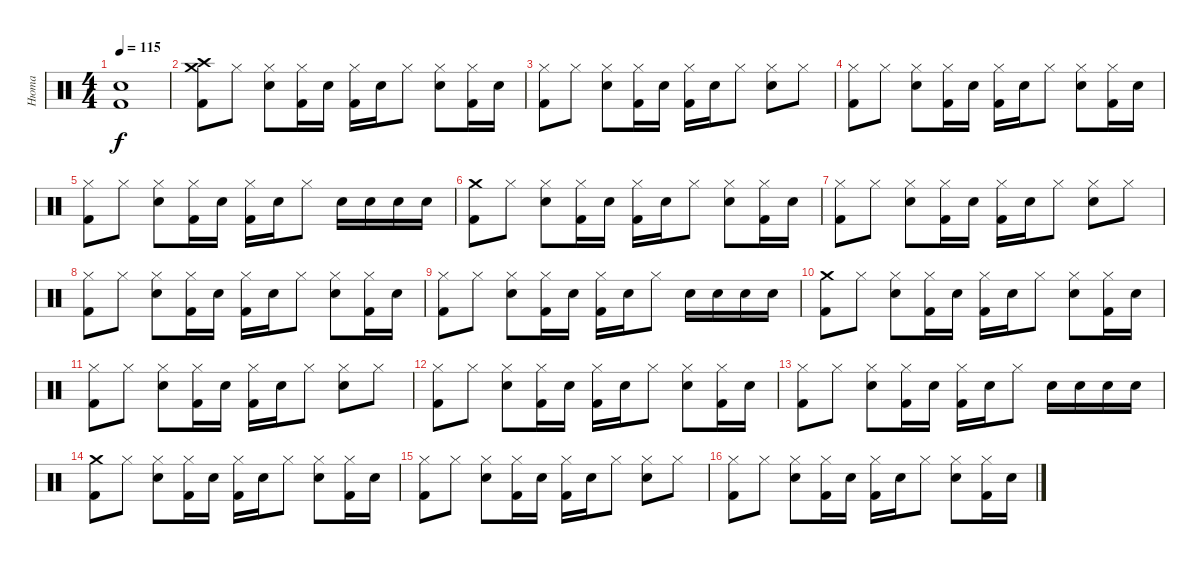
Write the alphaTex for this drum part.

\track ("Нюта" "Нюта") {instrument percussion}
\staff {score}
\articulation defaults
\ts (4 4)
\tempo 115
\clef neutral
\ks c
("Electric Snare (hit)" "Kick (hit) 2").1{dy f} |
("Crash medium (hit)" "Crash high (hit)" "Kick (hit) 2").8 "Hi-Hat (closed)".8 ("Hi-Hat (closed)" "Snare (hit) 2").8 ("Hi-Hat (closed)" "Kick (hit) 2").16 "Snare (hit) 2".16 ("Hi-Hat (closed)" "Kick (hit) 2").16 "Snare (hit) 2".16 "Hi-Hat (closed)".8 ("Hi-Hat (closed)" "Snare (hit) 2").8 ("Hi-Hat (closed)" "Kick (hit) 2").16 "Snare (hit) 2".16 |
("Hi-Hat (closed)" "Kick (hit) 2").8 "Hi-Hat (closed)".8 ("Hi-Hat (closed)" "Snare (hit) 2").8 ("Hi-Hat (closed)" "Kick (hit) 2").16 "Snare (hit) 2".16 ("Hi-Hat (closed)" "Kick (hit) 2").16 "Snare (hit) 2".16 "Hi-Hat (closed)".8 ("Hi-Hat (closed)" "Snare (hit) 2").8 "Hi-Hat (closed)".8 |
("Hi-Hat (closed)" "Kick (hit) 2").8 "Hi-Hat (closed)".8 ("Hi-Hat (closed)" "Snare (hit) 2").8 ("Hi-Hat (closed)" "Kick (hit) 2").16 "Snare (hit) 2".16 ("Hi-Hat (closed)" "Kick (hit) 2").16 "Snare (hit) 2".16 "Hi-Hat (closed)".8 ("Hi-Hat (closed)" "Snare (hit) 2").8 ("Hi-Hat (closed)" "Kick (hit) 2").16 "Snare (hit) 2".16 |
("Hi-Hat (closed)" "Kick (hit) 2").8 "Hi-Hat (closed)".8 ("Hi-Hat (closed)" "Snare (hit) 2").8 ("Hi-Hat (closed)" "Kick (hit) 2").16 "Snare (hit) 2".16 ("Hi-Hat (closed)" "Kick (hit) 2").16 "Snare (hit) 2".16 "Hi-Hat (closed)".8 "Snare (hit) 2".16 "Snare (hit) 2".16 "Snare (hit) 2".16 "Snare (hit) 2".16 |
("Crash medium (hit)" "Kick (hit) 2").8 "Hi-Hat (closed)".8 ("Hi-Hat (closed)" "Snare (hit) 2").8 ("Hi-Hat (closed)" "Kick (hit) 2").16 "Snare (hit) 2".16 ("Hi-Hat (closed)" "Kick (hit) 2").16 "Snare (hit) 2".16 "Hi-Hat (closed)".8 ("Hi-Hat (closed)" "Snare (hit) 2").8 ("Hi-Hat (closed)" "Kick (hit) 2").16 "Snare (hit) 2".16 |
("Hi-Hat (closed)" "Kick (hit) 2").8 "Hi-Hat (closed)".8 ("Hi-Hat (closed)" "Snare (hit) 2").8 ("Hi-Hat (closed)" "Kick (hit) 2").16 "Snare (hit) 2".16 ("Hi-Hat (closed)" "Kick (hit) 2").16 "Snare (hit) 2".16 "Hi-Hat (closed)".8 ("Hi-Hat (closed)" "Snare (hit) 2").8 "Hi-Hat (closed)".8 |
("Hi-Hat (closed)" "Kick (hit) 2").8 "Hi-Hat (closed)".8 ("Hi-Hat (closed)" "Snare (hit) 2").8 ("Hi-Hat (closed)" "Kick (hit) 2").16 "Snare (hit) 2".16 ("Hi-Hat (closed)" "Kick (hit) 2").16 "Snare (hit) 2".16 "Hi-Hat (closed)".8 ("Hi-Hat (closed)" "Snare (hit) 2").8 ("Hi-Hat (closed)" "Kick (hit) 2").16 "Snare (hit) 2".16 |
("Hi-Hat (closed)" "Kick (hit) 2").8 "Hi-Hat (closed)".8 ("Hi-Hat (closed)" "Snare (hit) 2").8 ("Hi-Hat (closed)" "Kick (hit) 2").16 "Snare (hit) 2".16 ("Hi-Hat (closed)" "Kick (hit) 2").16 "Snare (hit) 2".16 "Hi-Hat (closed)".8 "Snare (hit) 2".16 "Snare (hit) 2".16 "Snare (hit) 2".16 "Snare (hit) 2".16 |
("Crash medium (hit)" "Kick (hit) 2").8 "Hi-Hat (closed)".8 ("Hi-Hat (closed)" "Snare (hit) 2").8 ("Hi-Hat (closed)" "Kick (hit) 2").16 "Snare (hit) 2".16 ("Hi-Hat (closed)" "Kick (hit) 2").16 "Snare (hit) 2".16 "Hi-Hat (closed)".8 ("Hi-Hat (closed)" "Snare (hit) 2").8 ("Hi-Hat (closed)" "Kick (hit) 2").16 "Snare (hit) 2".16 |
("Hi-Hat (closed)" "Kick (hit) 2").8 "Hi-Hat (closed)".8 ("Hi-Hat (closed)" "Snare (hit) 2").8 ("Hi-Hat (closed)" "Kick (hit) 2").16 "Snare (hit) 2".16 ("Hi-Hat (closed)" "Kick (hit) 2").16 "Snare (hit) 2".16 "Hi-Hat (closed)".8 ("Hi-Hat (closed)" "Snare (hit) 2").8 "Hi-Hat (closed)".8 |
("Hi-Hat (closed)" "Kick (hit) 2").8 "Hi-Hat (closed)".8 ("Hi-Hat (closed)" "Snare (hit) 2").8 ("Hi-Hat (closed)" "Kick (hit) 2").16 "Snare (hit) 2".16 ("Hi-Hat (closed)" "Kick (hit) 2").16 "Snare (hit) 2".16 "Hi-Hat (closed)".8 ("Hi-Hat (closed)" "Snare (hit) 2").8 ("Hi-Hat (closed)" "Kick (hit) 2").16 "Snare (hit) 2".16 |
("Hi-Hat (closed)" "Kick (hit) 2").8 "Hi-Hat (closed)".8 ("Hi-Hat (closed)" "Snare (hit) 2").8 ("Hi-Hat (closed)" "Kick (hit) 2").16 "Snare (hit) 2".16 ("Hi-Hat (closed)" "Kick (hit) 2").16 "Snare (hit) 2".16 "Hi-Hat (closed)".8 "Snare (hit) 2".16 "Snare (hit) 2".16 "Snare (hit) 2".16 "Snare (hit) 2".16 |
("Crash medium (hit)" "Kick (hit) 2").8 "Hi-Hat (closed)".8 ("Hi-Hat (closed)" "Snare (hit) 2").8 ("Hi-Hat (closed)" "Kick (hit) 2").16 "Snare (hit) 2".16 ("Hi-Hat (closed)" "Kick (hit) 2").16 "Snare (hit) 2".16 "Hi-Hat (closed)".8 ("Hi-Hat (closed)" "Snare (hit) 2").8 ("Hi-Hat (closed)" "Kick (hit) 2").16 "Snare (hit) 2".16 |
("Hi-Hat (closed)" "Kick (hit) 2").8 "Hi-Hat (closed)".8 ("Hi-Hat (closed)" "Snare (hit) 2").8 ("Hi-Hat (closed)" "Kick (hit) 2").16 "Snare (hit) 2".16 ("Hi-Hat (closed)" "Kick (hit) 2").16 "Snare (hit) 2".16 "Hi-Hat (closed)".8 ("Hi-Hat (closed)" "Snare (hit) 2").8 "Hi-Hat (closed)".8 |
("Hi-Hat (closed)" "Kick (hit) 2").8 "Hi-Hat (closed)".8 ("Hi-Hat (closed)" "Snare (hit) 2").8 ("Hi-Hat (closed)" "Kick (hit) 2").16 "Snare (hit) 2".16 ("Hi-Hat (closed)" "Kick (hit) 2").16 "Snare (hit) 2".16 "Hi-Hat (closed)".8 ("Hi-Hat (closed)" "Snare (hit) 2").8 ("Hi-Hat (closed)" "Kick (hit) 2").16 "Snare (hit) 2".16
